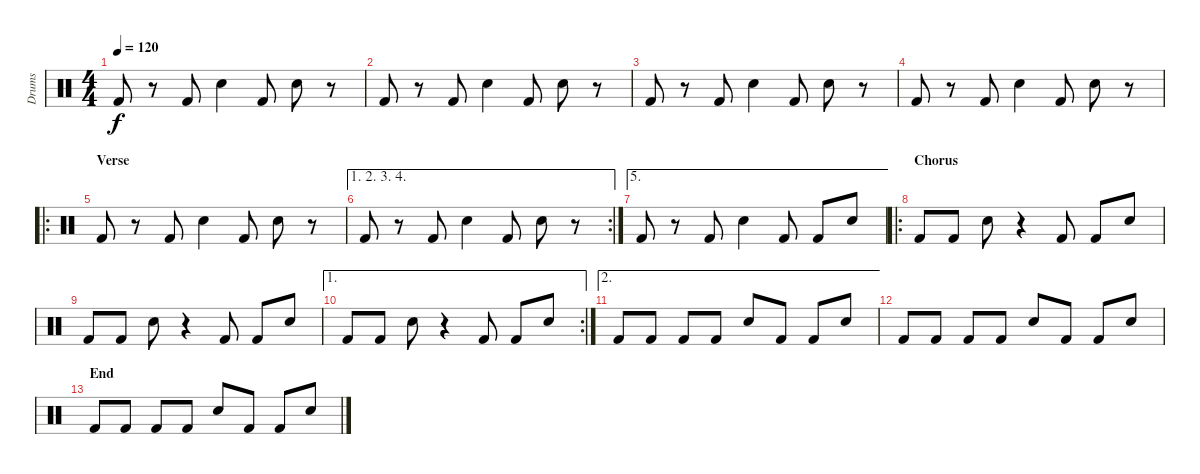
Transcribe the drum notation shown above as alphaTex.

\track ("Drums" "Drums") {instrument percussion}
\staff {score}
\articulation defaults
\ts (4 4)
\tempo 120
\clef neutral
\ks c "Kick (hit) 2".8{dy f}
r.8 "Kick (hit) 2".8 "Snare (hit) 2".4 "Kick (hit) 2".8 "Snare (hit) 2".8 r.8 |
"Kick (hit) 2".8 r.8 "Kick (hit) 2".8 "Snare (hit) 2".4 "Kick (hit) 2".8 "Snare (hit) 2".8 r.8 |
"Kick (hit) 2".8 r.8 "Kick (hit) 2".8 "Snare (hit) 2".4 "Kick (hit) 2".8 "Snare (hit) 2".8 r.8 |
"Kick (hit) 2".8 r.8 "Kick (hit) 2".8 "Snare (hit) 2".4 "Kick (hit) 2".8 "Snare (hit) 2".8 r.8 |
\ro
\section ("" "Verse")
"Kick (hit) 2".8 r.8 "Kick (hit) 2".8 "Snare (hit) 2".4 "Kick (hit) 2".8 "Snare (hit) 2".8 r.8 |
\ae (1 2 3 4)
\rc 2 "Kick (hit) 2".8
r.8 "Kick (hit) 2".8 "Snare (hit) 2".4 "Kick (hit) 2".8 "Snare (hit) 2".8 r.8 |
\ae 5 "Kick (hit) 2".8
r.8 "Kick (hit) 2".8 "Snare (hit) 2".4 "Kick (hit) 2".8 "Kick (hit) 2".8 "Snare (hit) 2".8 |
\ro
\section ("" "Chorus")
"Kick (hit) 2".8 "Kick (hit) 2".8 "Snare (hit) 2".8 r.4 "Kick (hit) 2".8 "Kick (hit) 2".8 "Snare (hit) 2".8 |
"Kick (hit) 2".8 "Kick (hit) 2".8 "Snare (hit) 2".8 r.4 "Kick (hit) 2".8 "Kick (hit) 2".8 "Snare (hit) 2".8 |
\ae 1
\rc 2 "Kick (hit) 2".8 "Kick (hit) 2".8 "Snare (hit) 2".8
r.4 "Kick (hit) 2".8 "Kick (hit) 2".8 "Snare (hit) 2".8 |
\ae 2 "Kick (hit) 2".8 "Kick (hit) 2".8 "Kick (hit) 2".8 "Kick (hit) 2".8 "Snare (hit) 2".8 "Kick (hit) 2".8 "Kick (hit) 2".8 "Snare (hit) 2".8
|
"Kick (hit) 2".8 "Kick (hit) 2".8 "Kick (hit) 2".8 "Kick (hit) 2".8 "Snare (hit) 2".8 "Kick (hit) 2".8 "Kick (hit) 2".8 "Snare (hit) 2".8 |
\section ("" "End")
"Kick (hit) 2".8 "Kick (hit) 2".8 "Kick (hit) 2".8 "Kick (hit) 2".8 "Snare (hit) 2".8 "Kick (hit) 2".8 "Kick (hit) 2".8 "Snare (hit) 2".8
